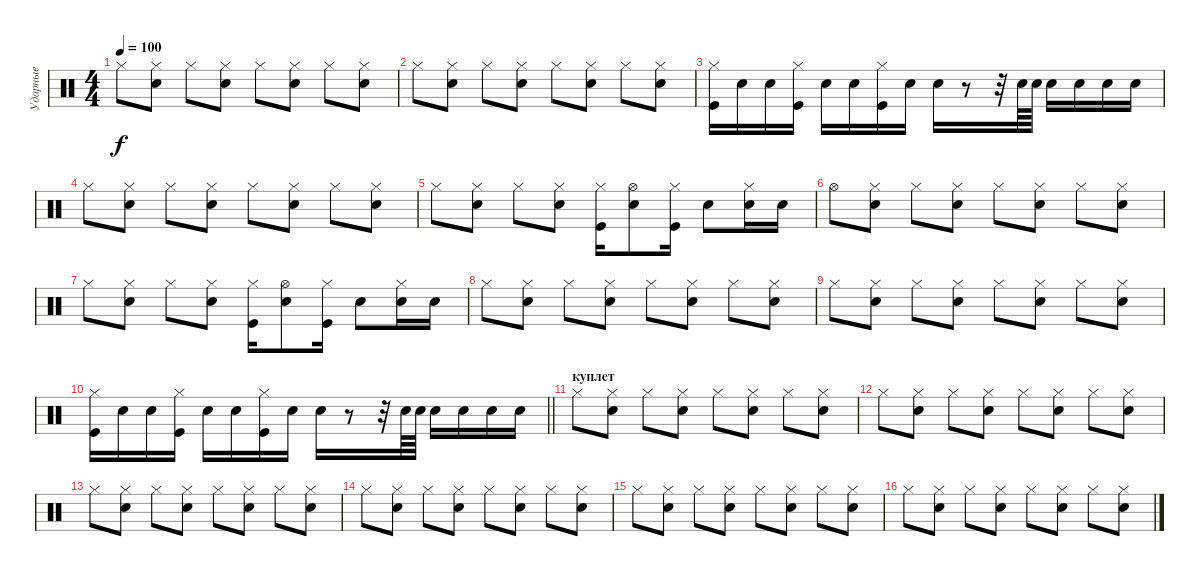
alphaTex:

\track ("Ударные" "Ударные") {instrument percussion}
\staff {score}
\articulation defaults
\ts (4 4)
\tempo 100
\clef neutral
\ks c "Hi-Hat (closed)".8{dy f}
("Hi-Hat (closed)" "Snare (hit) 2").8 "Hi-Hat (closed)".8 ("Hi-Hat (closed)" "Snare (hit) 2").8 "Hi-Hat (closed)".8 ("Hi-Hat (closed)" "Snare (hit) 2").8 "Hi-Hat (closed)".8 ("Hi-Hat (closed)" "Snare (hit) 2").8 |
"Hi-Hat (closed)".8 ("Hi-Hat (closed)" "Snare (hit) 2").8 "Hi-Hat (closed)".8 ("Hi-Hat (closed)" "Snare (hit) 2").8 "Hi-Hat (closed)".8 ("Hi-Hat (closed)" "Snare (hit) 2").8 "Hi-Hat (closed)".8 ("Hi-Hat (closed)" "Snare (hit) 2").8 |
("Hi-Hat (closed)" "Kick (hit)").16 "Electric Snare (hit)".16 "Electric Snare (hit)".16 ("Hi-Hat (closed)" "Kick (hit)").16 "Electric Snare (hit)".16 "Electric Snare (hit)".16 ("Hi-Hat (closed)" "Kick (hit)").16 "Electric Snare (hit)".16 "Electric Snare (hit)".16 r.8 r.32 "Electric Snare (hit)".64 "Electric Snare (hit)".64 "Electric Snare (hit)".16 "Electric Snare (hit)".16 "Electric Snare (hit)".16 "Electric Snare (hit)".16 |
"Hi-Hat (closed)".8 ("Hi-Hat (closed)" "Snare (hit) 2").8 "Hi-Hat (closed)".8 ("Hi-Hat (closed)" "Snare (hit) 2").8 "Hi-Hat (closed)".8 ("Hi-Hat (closed)" "Snare (hit) 2").8 "Hi-Hat (closed)".8 ("Hi-Hat (closed)" "Snare (hit) 2").8 |
"Hi-Hat (closed)".8 ("Hi-Hat (closed)" "Snare (hit) 2").8 "Hi-Hat (closed)".8 ("Hi-Hat (closed)" "Snare (hit) 2").8 ("Hi-Hat (closed)" "Kick (hit)").16 ("Hi-Hat (open)" "Electric Snare (hit)").8 ("Hi-Hat (closed)" "Kick (hit)").16 "Electric Snare (hit)".8 ("Hi-Hat (closed)" "Electric Snare (hit)").16 "Electric Snare (hit)".16 |
"Hi-Hat (open)".8 ("Hi-Hat (closed)" "Snare (hit) 2").8 "Hi-Hat (closed)".8 ("Hi-Hat (closed)" "Snare (hit) 2").8 "Hi-Hat (closed)".8 ("Hi-Hat (closed)" "Snare (hit) 2").8 "Hi-Hat (closed)".8 ("Hi-Hat (closed)" "Snare (hit) 2").8 |
"Hi-Hat (closed)".8 ("Hi-Hat (closed)" "Snare (hit) 2").8 "Hi-Hat (closed)".8 ("Hi-Hat (closed)" "Snare (hit) 2").8 ("Hi-Hat (closed)" "Kick (hit)").16 ("Hi-Hat (open)" "Electric Snare (hit)").8 ("Hi-Hat (closed)" "Kick (hit)").16 "Electric Snare (hit)".8 ("Hi-Hat (closed)" "Electric Snare (hit)").16 "Electric Snare (hit)".16 |
"Hi-Hat (closed)".8 ("Hi-Hat (closed)" "Snare (hit) 2").8 "Hi-Hat (closed)".8 ("Hi-Hat (closed)" "Snare (hit) 2").8 "Hi-Hat (closed)".8 ("Hi-Hat (closed)" "Snare (hit) 2").8 "Hi-Hat (closed)".8 ("Hi-Hat (closed)" "Snare (hit) 2").8 |
"Hi-Hat (closed)".8 ("Hi-Hat (closed)" "Snare (hit) 2").8 "Hi-Hat (closed)".8 ("Hi-Hat (closed)" "Snare (hit) 2").8 "Hi-Hat (closed)".8 ("Hi-Hat (closed)" "Snare (hit) 2").8 "Hi-Hat (closed)".8 ("Hi-Hat (closed)" "Snare (hit) 2").8 |
\barLineRight lightlight
("Hi-Hat (closed)" "Kick (hit)").16 "Electric Snare (hit)".16 "Electric Snare (hit)".16 ("Hi-Hat (closed)" "Kick (hit)").16 "Electric Snare (hit)".16 "Electric Snare (hit)".16 ("Hi-Hat (closed)" "Kick (hit)").16 "Electric Snare (hit)".16 "Electric Snare (hit)".16 r.8 r.32 "Electric Snare (hit)".64 "Electric Snare (hit)".64 "Electric Snare (hit)".16 "Electric Snare (hit)".16 "Electric Snare (hit)".16 "Electric Snare (hit)".16 |
\section ("" "куплет")
"Hi-Hat (closed)".8 ("Hi-Hat (closed)" "Snare (hit) 2").8 "Hi-Hat (closed)".8 ("Hi-Hat (closed)" "Snare (hit) 2").8 "Hi-Hat (closed)".8 ("Hi-Hat (closed)" "Snare (hit) 2").8 "Hi-Hat (closed)".8 ("Hi-Hat (closed)" "Snare (hit) 2").8 |
"Hi-Hat (closed)".8 ("Hi-Hat (closed)" "Snare (hit) 2").8 "Hi-Hat (closed)".8 ("Hi-Hat (closed)" "Snare (hit) 2").8 "Hi-Hat (closed)".8 ("Hi-Hat (closed)" "Snare (hit) 2").8 "Hi-Hat (closed)".8 ("Hi-Hat (closed)" "Snare (hit) 2").8 |
"Hi-Hat (closed)".8 ("Hi-Hat (closed)" "Snare (hit) 2").8 "Hi-Hat (closed)".8 ("Hi-Hat (closed)" "Snare (hit) 2").8 "Hi-Hat (closed)".8 ("Hi-Hat (closed)" "Snare (hit) 2").8 "Hi-Hat (closed)".8 ("Hi-Hat (closed)" "Snare (hit) 2").8 |
"Hi-Hat (closed)".8 ("Hi-Hat (closed)" "Snare (hit) 2").8 "Hi-Hat (closed)".8 ("Hi-Hat (closed)" "Snare (hit) 2").8 "Hi-Hat (closed)".8 ("Hi-Hat (closed)" "Snare (hit) 2").8 "Hi-Hat (closed)".8 ("Hi-Hat (closed)" "Snare (hit) 2").8 |
"Hi-Hat (closed)".8 ("Hi-Hat (closed)" "Snare (hit) 2").8 "Hi-Hat (closed)".8 ("Hi-Hat (closed)" "Snare (hit) 2").8 "Hi-Hat (closed)".8 ("Hi-Hat (closed)" "Snare (hit) 2").8 "Hi-Hat (closed)".8 ("Hi-Hat (closed)" "Snare (hit) 2").8 |
"Hi-Hat (closed)".8 ("Hi-Hat (closed)" "Snare (hit) 2").8 "Hi-Hat (closed)".8 ("Hi-Hat (closed)" "Snare (hit) 2").8 "Hi-Hat (closed)".8 ("Hi-Hat (closed)" "Snare (hit) 2").8 "Hi-Hat (closed)".8 ("Hi-Hat (closed)" "Snare (hit) 2").8
